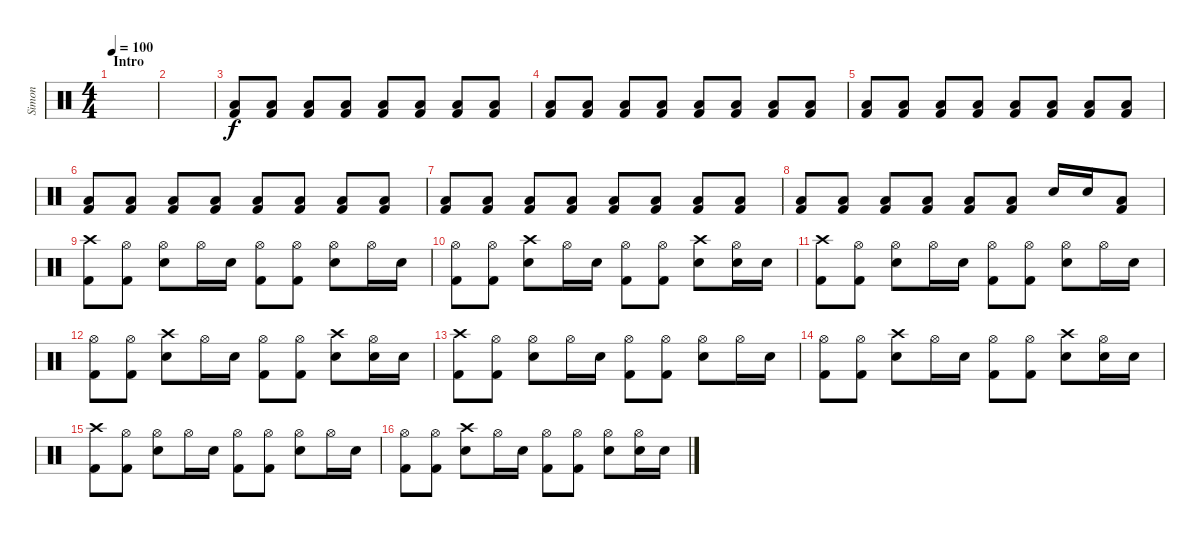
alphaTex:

\track ("Simon" "Simon") {instrument percussion}
\staff {score}
\articulation defaults
\ts (4 4)
\section ("" "Intro")
\tempo 100
\clef neutral
\ks c
|
|
("Kick (hit) 2" "Low Tom (hit)").8 ("Kick (hit) 2" "Low Tom (hit)").8 ("Kick (hit) 2" "Low Tom (hit)").8 ("Kick (hit) 2" "Low Tom (hit)").8 ("Kick (hit) 2" "Low Tom (hit)").8 ("Kick (hit) 2" "Low Tom (hit)").8 ("Kick (hit) 2" "Low Tom (hit)").8 ("Kick (hit) 2" "Low Tom (hit)").8 |
("Kick (hit) 2" "Low Tom (hit)").8 ("Kick (hit) 2" "Low Tom (hit)").8 ("Kick (hit) 2" "Low Tom (hit)").8 ("Kick (hit) 2" "Low Tom (hit)").8 ("Kick (hit) 2" "Low Tom (hit)").8 ("Kick (hit) 2" "Low Tom (hit)").8 ("Kick (hit) 2" "Low Tom (hit)").8 ("Kick (hit) 2" "Low Tom (hit)").8 |
("Kick (hit) 2" "Low Tom (hit)").8 ("Kick (hit) 2" "Low Tom (hit)").8 ("Kick (hit) 2" "Low Tom (hit)").8 ("Kick (hit) 2" "Low Tom (hit)").8 ("Kick (hit) 2" "Low Tom (hit)").8 ("Kick (hit) 2" "Low Tom (hit)").8 ("Kick (hit) 2" "Low Tom (hit)").8 ("Kick (hit) 2" "Low Tom (hit)").8 |
("Kick (hit) 2" "Low Tom (hit)").8 ("Kick (hit) 2" "Low Tom (hit)").8 ("Kick (hit) 2" "Low Tom (hit)").8 ("Kick (hit) 2" "Low Tom (hit)").8 ("Kick (hit) 2" "Low Tom (hit)").8 ("Kick (hit) 2" "Low Tom (hit)").8 ("Kick (hit) 2" "Low Tom (hit)").8 ("Kick (hit) 2" "Low Tom (hit)").8 |
("Kick (hit) 2" "Low Tom (hit)").8 ("Kick (hit) 2" "Low Tom (hit)").8 ("Kick (hit) 2" "Low Tom (hit)").8 ("Kick (hit) 2" "Low Tom (hit)").8 ("Kick (hit) 2" "Low Tom (hit)").8 ("Kick (hit) 2" "Low Tom (hit)").8 ("Kick (hit) 2" "Low Tom (hit)").8 ("Kick (hit) 2" "Low Tom (hit)").8 |
("Kick (hit) 2" "Low Tom (hit)").8 ("Kick (hit) 2" "Low Tom (hit)").8 ("Kick (hit) 2" "Low Tom (hit)").8 ("Kick (hit) 2" "Low Tom (hit)").8 ("Kick (hit) 2" "Low Tom (hit)").8 ("Kick (hit) 2" "Low Tom (hit)").8 "Electric Snare (hit)".16 "Electric Snare (hit)".16 ("Kick (hit) 2" "Low Tom (hit)").8 |
("Crash high (hit)" "Kick (hit) 2").8 ("Hi-Hat (open)" "Kick (hit) 2").8 ("Hi-Hat (open)" "Electric Snare (hit)").8 "Hi-Hat (open)".16 "Electric Snare (hit)".16 ("Hi-Hat (open)" "Kick (hit) 2").8 ("Hi-Hat (open)" "Kick (hit) 2").8 ("Hi-Hat (open)" "Electric Snare (hit)").8 "Hi-Hat (open)".16 "Electric Snare (hit)".16 |
("Hi-Hat (open)" "Kick (hit) 2").8 ("Hi-Hat (open)" "Kick (hit) 2").8 ("Crash high (hit)" "Electric Snare (hit)").8 "Hi-Hat (open)".16 "Electric Snare (hit)".16 ("Hi-Hat (open)" "Kick (hit) 2").8 ("Hi-Hat (open)" "Kick (hit) 2").8 ("Crash high (hit)" "Electric Snare (hit)").8 ("Hi-Hat (open)" "Electric Snare (hit)").16 "Electric Snare (hit)".16 |
("Crash high (hit)" "Kick (hit) 2").8 ("Hi-Hat (open)" "Kick (hit) 2").8 ("Hi-Hat (open)" "Electric Snare (hit)").8 "Hi-Hat (open)".16 "Electric Snare (hit)".16 ("Hi-Hat (open)" "Kick (hit) 2").8 ("Hi-Hat (open)" "Kick (hit) 2").8 ("Hi-Hat (open)" "Electric Snare (hit)").8 "Hi-Hat (open)".16 "Electric Snare (hit)".16 |
("Hi-Hat (open)" "Kick (hit) 2").8 ("Hi-Hat (open)" "Kick (hit) 2").8 ("Crash high (hit)" "Electric Snare (hit)").8 "Hi-Hat (open)".16 "Electric Snare (hit)".16 ("Hi-Hat (open)" "Kick (hit) 2").8 ("Hi-Hat (open)" "Kick (hit) 2").8 ("Crash high (hit)" "Electric Snare (hit)").8 ("Hi-Hat (open)" "Electric Snare (hit)").16 "Electric Snare (hit)".16 |
("Crash high (hit)" "Kick (hit) 2").8 ("Hi-Hat (open)" "Kick (hit) 2").8 ("Hi-Hat (open)" "Electric Snare (hit)").8 "Hi-Hat (open)".16 "Electric Snare (hit)".16 ("Hi-Hat (open)" "Kick (hit) 2").8 ("Hi-Hat (open)" "Kick (hit) 2").8 ("Hi-Hat (open)" "Electric Snare (hit)").8 "Hi-Hat (open)".16 "Electric Snare (hit)".16 |
("Hi-Hat (open)" "Kick (hit) 2").8 ("Hi-Hat (open)" "Kick (hit) 2").8 ("Crash high (hit)" "Electric Snare (hit)").8 "Hi-Hat (open)".16 "Electric Snare (hit)".16 ("Hi-Hat (open)" "Kick (hit) 2").8 ("Hi-Hat (open)" "Kick (hit) 2").8 ("Crash high (hit)" "Electric Snare (hit)").8 ("Hi-Hat (open)" "Electric Snare (hit)").16 "Electric Snare (hit)".16 |
("Crash high (hit)" "Kick (hit) 2").8 ("Hi-Hat (open)" "Kick (hit) 2").8 ("Hi-Hat (open)" "Electric Snare (hit)").8 "Hi-Hat (open)".16 "Electric Snare (hit)".16 ("Hi-Hat (open)" "Kick (hit) 2").8 ("Hi-Hat (open)" "Kick (hit) 2").8 ("Hi-Hat (open)" "Electric Snare (hit)").8 "Hi-Hat (open)".16 "Electric Snare (hit)".16 |
("Hi-Hat (open)" "Kick (hit) 2").8 ("Hi-Hat (open)" "Kick (hit) 2").8 ("Crash high (hit)" "Electric Snare (hit)").8 "Hi-Hat (open)".16 "Electric Snare (hit)".16 ("Hi-Hat (open)" "Kick (hit) 2").8 ("Hi-Hat (open)" "Kick (hit) 2").8 ("Hi-Hat (open)" "Electric Snare (hit)").8 ("Hi-Hat (open)" "Electric Snare (hit)").16 "Electric Snare (hit)".16
